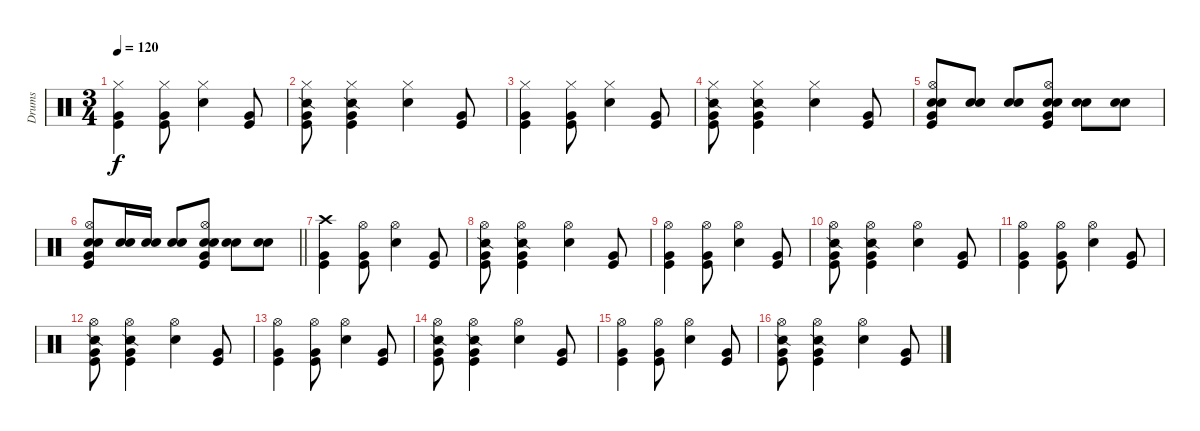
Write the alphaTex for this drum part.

\track ("Drums" "Drums") {instrument percussion}
\staff {score}
\articulation defaults
\ts (3 4)
\tempo 120
\clef neutral
\ks c
("Hi-Hat (closed)" "Very Low Tom (hit)" "Kick (hit)").4{dy f} ("Hi-Hat (closed)" "Very Low Tom (hit)" "Kick (hit)").8 ("Hi-Hat (closed)" "Electric Snare (hit)").4 ("Very Low Tom (hit)" "Kick (hit)").8 |
("Hi-Hat (closed)" "Snare (side stick) 2" "Very Low Tom (hit)" "Kick (hit)").8 ("Hi-Hat (closed)" "Snare (side stick) 2" "Very Low Tom (hit)" "Kick (hit)").4 ("Hi-Hat (closed)" "Electric Snare (hit)").4 ("Very Low Tom (hit)" "Kick (hit)").8 |
("Hi-Hat (closed)" "Very Low Tom (hit)" "Kick (hit)").4 ("Hi-Hat (closed)" "Very Low Tom (hit)" "Kick (hit)").8 ("Hi-Hat (closed)" "Electric Snare (hit)").4 ("Very Low Tom (hit)" "Kick (hit)").8 |
("Hi-Hat (closed)" "Snare (side stick) 2" "Very Low Tom (hit)" "Kick (hit)").8 ("Hi-Hat (closed)" "Snare (side stick) 2" "Very Low Tom (hit)" "Kick (hit)").4 ("Hi-Hat (closed)" "Electric Snare (hit)").4 ("Very Low Tom (hit)" "Kick (hit)").8 |
("Hi-Hat (open)" "Electric Snare (hit)" "Snare (hit) 2" "Very Low Tom (hit)" "Kick (hit)").8 ("Electric Snare (hit)" "Snare (hit) 2").8 ("Electric Snare (hit)" "Snare (hit) 2").8 ("Hi-Hat (open)" "Electric Snare (hit)" "Snare (hit) 2" "Very Low Tom (hit)" "Kick (hit)").8 ("Electric Snare (hit)" "Snare (hit) 2").8 ("Electric Snare (hit)" "Snare (hit) 2").8 |
\barLineRight lightlight
("Hi-Hat (open)" "Electric Snare (hit)" "Snare (hit) 2" "Very Low Tom (hit)" "Kick (hit)").8 ("Electric Snare (hit)" "Snare (hit) 2").16 ("Electric Snare (hit)" "Snare (hit) 2").16 ("Electric Snare (hit)" "Snare (hit) 2").8 ("Hi-Hat (open)" "Electric Snare (hit)" "Snare (hit) 2" "Very Low Tom (hit)" "Kick (hit)").8 ("Electric Snare (hit)" "Snare (hit) 2").8 ("Electric Snare (hit)" "Snare (hit) 2").8 |
("Crash high (hit)" "Very Low Tom (hit)" "Kick (hit)").4 ("Hi-Hat (open)" "Very Low Tom (hit)" "Kick (hit)").8 ("Hi-Hat (open)" "Electric Snare (hit)").4 ("Very Low Tom (hit)" "Kick (hit)").8 |
("Hi-Hat (open)" "Snare (side stick) 2" "Very Low Tom (hit)" "Kick (hit)").8 ("Hi-Hat (open)" "Snare (side stick) 2" "Very Low Tom (hit)" "Kick (hit)").4 ("Hi-Hat (open)" "Electric Snare (hit)").4 ("Very Low Tom (hit)" "Kick (hit)").8 |
("Hi-Hat (open)" "Very Low Tom (hit)" "Kick (hit)").4 ("Hi-Hat (open)" "Very Low Tom (hit)" "Kick (hit)").8 ("Hi-Hat (open)" "Electric Snare (hit)").4 ("Very Low Tom (hit)" "Kick (hit)").8 |
("Hi-Hat (open)" "Snare (side stick) 2" "Very Low Tom (hit)" "Kick (hit)").8 ("Hi-Hat (open)" "Snare (side stick) 2" "Very Low Tom (hit)" "Kick (hit)").4 ("Hi-Hat (open)" "Electric Snare (hit)").4 ("Very Low Tom (hit)" "Kick (hit)").8 |
("Hi-Hat (open)" "Very Low Tom (hit)" "Kick (hit)").4 ("Hi-Hat (open)" "Very Low Tom (hit)" "Kick (hit)").8 ("Hi-Hat (open)" "Electric Snare (hit)").4 ("Very Low Tom (hit)" "Kick (hit)").8 |
("Hi-Hat (open)" "Snare (side stick) 2" "Very Low Tom (hit)" "Kick (hit)").8 ("Hi-Hat (open)" "Snare (side stick) 2" "Very Low Tom (hit)" "Kick (hit)").4 ("Hi-Hat (open)" "Electric Snare (hit)").4 ("Very Low Tom (hit)" "Kick (hit)").8 |
("Hi-Hat (open)" "Very Low Tom (hit)" "Kick (hit)").4 ("Hi-Hat (open)" "Very Low Tom (hit)" "Kick (hit)").8 ("Hi-Hat (open)" "Electric Snare (hit)").4 ("Very Low Tom (hit)" "Kick (hit)").8 |
("Hi-Hat (open)" "Snare (side stick) 2" "Very Low Tom (hit)" "Kick (hit)").8 ("Hi-Hat (open)" "Snare (side stick) 2" "Very Low Tom (hit)" "Kick (hit)").4 ("Hi-Hat (open)" "Electric Snare (hit)").4 ("Very Low Tom (hit)" "Kick (hit)").8 |
("Hi-Hat (open)" "Very Low Tom (hit)" "Kick (hit)").4 ("Hi-Hat (open)" "Very Low Tom (hit)" "Kick (hit)").8 ("Hi-Hat (open)" "Electric Snare (hit)").4 ("Very Low Tom (hit)" "Kick (hit)").8 |
("Hi-Hat (open)" "Snare (side stick) 2" "Very Low Tom (hit)" "Kick (hit)").8 ("Hi-Hat (open)" "Snare (side stick) 2" "Very Low Tom (hit)" "Kick (hit)").4 ("Hi-Hat (open)" "Electric Snare (hit)").4 ("Very Low Tom (hit)" "Kick (hit)").8
